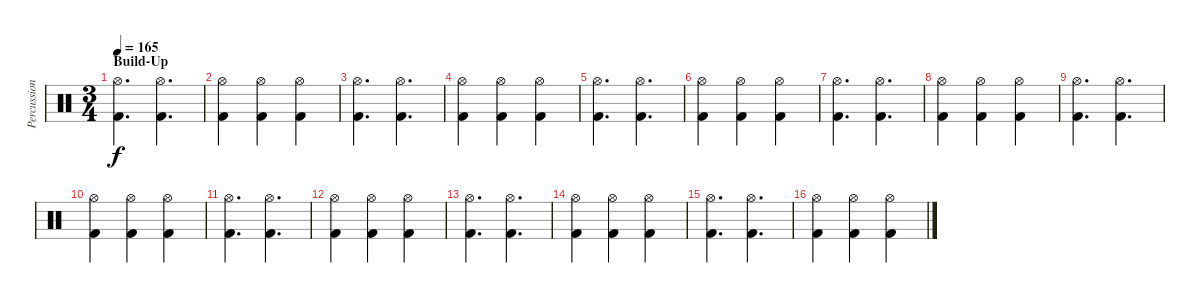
\track ("Percussion" "Percussion") {instrument percussion}
\staff {score}
\articulation defaults
\ts (3 4)
\section ("" "Build-Up")
\tempo 165
\clef neutral
\ks c
("Hi-Hat (open)" "Kick (hit) 2").4{d dy f} ("Hi-Hat (open)" "Kick (hit) 2").4{d} |
("Hi-Hat (open)" "Kick (hit) 2").4 ("Hi-Hat (open)" "Kick (hit) 2").4 ("Hi-Hat (open)" "Kick (hit) 2").4 |
("Hi-Hat (open)" "Kick (hit) 2").4{d} ("Hi-Hat (open)" "Kick (hit) 2").4{d} |
("Hi-Hat (open)" "Kick (hit) 2").4 ("Hi-Hat (open)" "Kick (hit) 2").4 ("Hi-Hat (open)" "Kick (hit) 2").4 |
("Hi-Hat (open)" "Kick (hit) 2").4{d} ("Hi-Hat (open)" "Kick (hit) 2").4{d} |
("Hi-Hat (open)" "Kick (hit) 2").4 ("Hi-Hat (open)" "Kick (hit) 2").4 ("Hi-Hat (open)" "Kick (hit) 2").4 |
("Hi-Hat (open)" "Kick (hit) 2").4{d} ("Hi-Hat (open)" "Kick (hit) 2").4{d} |
("Hi-Hat (open)" "Kick (hit) 2").4 ("Hi-Hat (open)" "Kick (hit) 2").4 ("Hi-Hat (open)" "Kick (hit) 2").4 |
("Hi-Hat (open)" "Kick (hit) 2").4{d} ("Hi-Hat (open)" "Kick (hit) 2").4{d} |
("Hi-Hat (open)" "Kick (hit) 2").4 ("Hi-Hat (open)" "Kick (hit) 2").4 ("Hi-Hat (open)" "Kick (hit) 2").4 |
("Hi-Hat (open)" "Kick (hit) 2").4{d} ("Hi-Hat (open)" "Kick (hit) 2").4{d} |
("Hi-Hat (open)" "Kick (hit) 2").4 ("Hi-Hat (open)" "Kick (hit) 2").4 ("Hi-Hat (open)" "Kick (hit) 2").4 |
("Hi-Hat (open)" "Kick (hit) 2").4{d} ("Hi-Hat (open)" "Kick (hit) 2").4{d} |
("Hi-Hat (open)" "Kick (hit) 2").4 ("Hi-Hat (open)" "Kick (hit) 2").4 ("Hi-Hat (open)" "Kick (hit) 2").4 |
("Hi-Hat (open)" "Kick (hit) 2").4{d} ("Hi-Hat (open)" "Kick (hit) 2").4{d} |
("Hi-Hat (open)" "Kick (hit) 2").4 ("Hi-Hat (open)" "Kick (hit) 2").4 ("Hi-Hat (open)" "Kick (hit) 2").4
